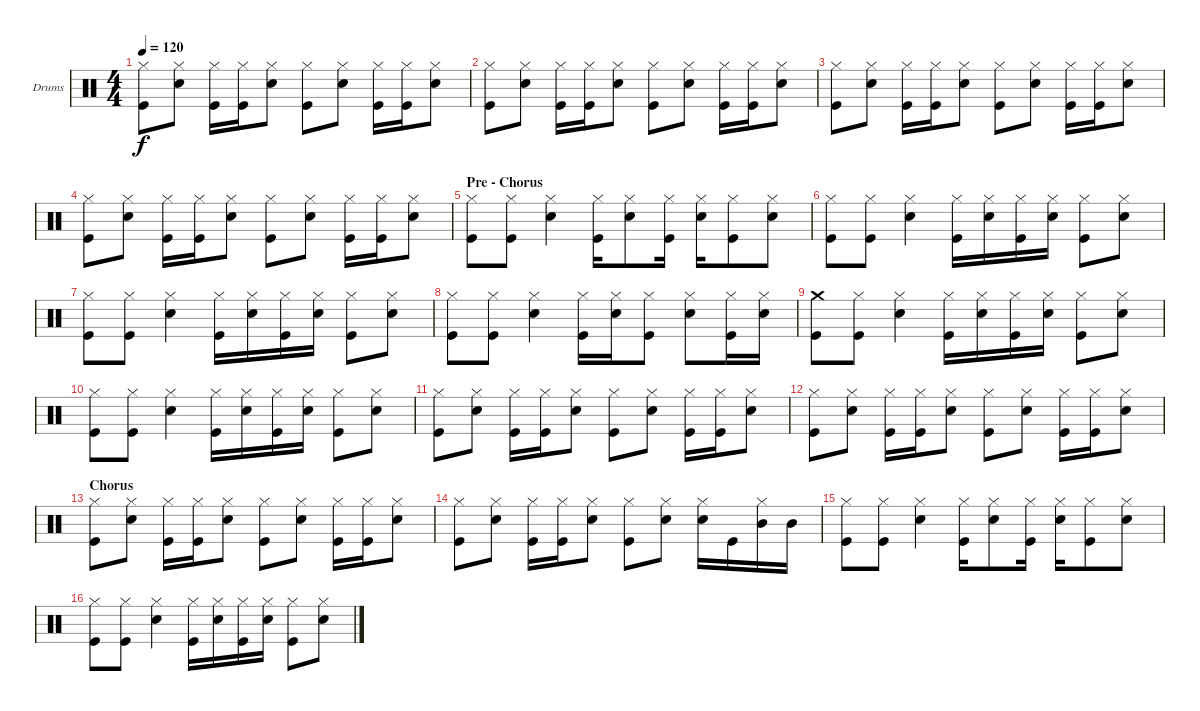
\defaultSystemsLayout 4
\bracketExtendMode groupsimilarinstruments
\firstSystemTrackNameOrientation horizontal
\otherSystemsTrackNameOrientation horizontal
\track ("Drumkit" "Drums") {instrument percussion}
\staff {score}
\articulation defaults
\ts (4 4)
\tempo 120
\clef neutral
\scale
0.333333
\ks c
("Hi-Hat (closed)" "Kick (hit)").8{dy f} ("Hi-Hat (closed)" "Snare (hit) 2").8 ("Hi-Hat (closed)" "Kick (hit)").16 ("Hi-Hat (closed)" "Kick (hit)").16 ("Hi-Hat (closed)" "Snare (hit) 2").8 ("Hi-Hat (closed)" "Kick (hit)").8 ("Hi-Hat (closed)" "Snare (hit) 2").8 ("Hi-Hat (closed)" "Kick (hit)").16 ("Hi-Hat (closed)" "Kick (hit)").16 ("Hi-Hat (closed)" "Snare (hit) 2").8 |
\scale
0.333333 ("Hi-Hat (closed)" "Kick (hit)").8 ("Hi-Hat (closed)" "Snare (hit) 2").8 ("Hi-Hat (closed)" "Kick (hit)").16 ("Hi-Hat (closed)" "Kick (hit)").16 ("Hi-Hat (closed)" "Snare (hit) 2").8 ("Hi-Hat (closed)" "Kick (hit)").8 ("Hi-Hat (closed)" "Snare (hit) 2").8 ("Hi-Hat (closed)" "Kick (hit)").16 ("Hi-Hat (closed)" "Kick (hit)").16 ("Hi-Hat (closed)" "Snare (hit) 2").8 |
\scale
0.333333 ("Hi-Hat (closed)" "Kick (hit)").8 ("Hi-Hat (closed)" "Snare (hit) 2").8 ("Hi-Hat (closed)" "Kick (hit)").16 ("Hi-Hat (closed)" "Kick (hit)").16 ("Hi-Hat (closed)" "Snare (hit) 2").8 ("Hi-Hat (closed)" "Kick (hit)").8 ("Hi-Hat (closed)" "Snare (hit) 2").8 ("Hi-Hat (closed)" "Kick (hit)").16 ("Hi-Hat (closed)" "Kick (hit)").16 ("Hi-Hat (closed)" "Snare (hit) 2").8 |
\scale
0.333333 ("Hi-Hat (closed)" "Kick (hit)").8 ("Hi-Hat (closed)" "Snare (hit) 2").8 ("Hi-Hat (closed)" "Kick (hit)").16 ("Hi-Hat (closed)" "Kick (hit)").16 ("Hi-Hat (closed)" "Snare (hit) 2").8 ("Hi-Hat (closed)" "Kick (hit)").8 ("Hi-Hat (closed)" "Snare (hit) 2").8 ("Hi-Hat (closed)" "Kick (hit)").16 ("Hi-Hat (closed)" "Kick (hit)").16 ("Hi-Hat (closed)" "Snare (hit) 2").8 |
\section ("" "Pre - Chorus")
\scale
0.333333 ("Hi-Hat (closed)" "Kick (hit)").8 ("Hi-Hat (closed)" "Kick (hit)").8 ("Hi-Hat (closed)" "Snare (hit) 2").4 ("Hi-Hat (closed)" "Kick (hit)").16 ("Hi-Hat (closed)" "Snare (hit) 2").8 ("Hi-Hat (closed)" "Kick (hit)").16 ("Hi-Hat (closed)" "Snare (hit) 2").16 ("Hi-Hat (closed)" "Kick (hit)").8 ("Hi-Hat (closed)" "Snare (hit) 2").8 |
\scale
0.333333 ("Hi-Hat (closed)" "Kick (hit)").8 ("Hi-Hat (closed)" "Kick (hit)").8 ("Hi-Hat (closed)" "Snare (hit) 2").4 ("Hi-Hat (closed)" "Kick (hit)").16 ("Hi-Hat (closed)" "Snare (hit) 2").16 ("Hi-Hat (closed)" "Kick (hit)").16 ("Hi-Hat (closed)" "Snare (hit) 2").16 ("Hi-Hat (closed)" "Kick (hit)").8 ("Hi-Hat (closed)" "Snare (hit) 2").8 |
\scale
0.333333 ("Hi-Hat (closed)" "Kick (hit)").8 ("Hi-Hat (closed)" "Kick (hit)").8 ("Hi-Hat (closed)" "Snare (hit) 2").4 ("Hi-Hat (closed)" "Kick (hit)").16 ("Hi-Hat (closed)" "Snare (hit) 2").16 ("Hi-Hat (closed)" "Kick (hit)").16 ("Hi-Hat (closed)" "Snare (hit) 2").16 ("Hi-Hat (closed)" "Kick (hit)").8 ("Hi-Hat (closed)" "Snare (hit) 2").8 |
\scale
0.333333 ("Hi-Hat (closed)" "Kick (hit)").8 ("Hi-Hat (closed)" "Kick (hit)").8 ("Hi-Hat (closed)" "Snare (hit) 2").4 ("Hi-Hat (closed)" "Kick (hit)").16 ("Hi-Hat (closed)" "Snare (hit) 2").16 ("Hi-Hat (closed)" "Kick (hit)").8 ("Hi-Hat (closed)" "Snare (hit) 2").8 ("Hi-Hat (closed)" "Kick (hit)").16 ("Hi-Hat (closed)" "Snare (hit) 2").16 |
\scale
0.333333 ("Crash medium (hit)" "Kick (hit)").8 ("Hi-Hat (closed)" "Kick (hit)").8 ("Hi-Hat (closed)" "Snare (hit) 2").4 ("Hi-Hat (closed)" "Kick (hit)").16 ("Hi-Hat (closed)" "Snare (hit) 2").16 ("Hi-Hat (closed)" "Kick (hit)").16 ("Hi-Hat (closed)" "Snare (hit) 2").16 ("Hi-Hat (closed)" "Kick (hit)").8 ("Hi-Hat (closed)" "Snare (hit) 2").8 |
\scale
0.333333 ("Hi-Hat (closed)" "Kick (hit)").8 ("Hi-Hat (closed)" "Kick (hit)").8 ("Hi-Hat (closed)" "Snare (hit) 2").4 ("Hi-Hat (closed)" "Kick (hit)").16 ("Hi-Hat (closed)" "Snare (hit) 2").16 ("Hi-Hat (closed)" "Kick (hit)").16 ("Hi-Hat (closed)" "Snare (hit) 2").16 ("Hi-Hat (closed)" "Kick (hit)").8 ("Hi-Hat (closed)" "Snare (hit) 2").8 |
("Hi-Hat (closed)" "Kick (hit)").8 ("Hi-Hat (closed)" "Snare (hit) 2").8 ("Hi-Hat (closed)" "Kick (hit)").16 ("Hi-Hat (closed)" "Kick (hit)").16 ("Hi-Hat (closed)" "Snare (hit) 2").8 ("Hi-Hat (closed)" "Kick (hit)").8 ("Hi-Hat (closed)" "Snare (hit) 2").8 ("Hi-Hat (closed)" "Kick (hit)").16 ("Hi-Hat (closed)" "Kick (hit)").16 ("Hi-Hat (closed)" "Snare (hit) 2").8 |
("Hi-Hat (closed)" "Kick (hit)").8 ("Hi-Hat (closed)" "Snare (hit) 2").8 ("Hi-Hat (closed)" "Kick (hit)").16 ("Hi-Hat (closed)" "Kick (hit)").16 ("Hi-Hat (closed)" "Snare (hit) 2").8 ("Hi-Hat (closed)" "Kick (hit)").8 ("Hi-Hat (closed)" "Snare (hit) 2").8 ("Hi-Hat (closed)" "Kick (hit)").16 ("Hi-Hat (closed)" "Kick (hit)").16 ("Hi-Hat (closed)" "Snare (hit) 2").8 |
\section ("" "Chorus")
("Hi-Hat (closed)" "Kick (hit)").8 ("Hi-Hat (closed)" "Snare (hit) 2").8 ("Hi-Hat (closed)" "Kick (hit)").16 ("Hi-Hat (closed)" "Kick (hit)").16 ("Hi-Hat (closed)" "Snare (hit) 2").8 ("Hi-Hat (closed)" "Kick (hit)").8 ("Hi-Hat (closed)" "Snare (hit) 2").8 ("Hi-Hat (closed)" "Kick (hit)").16 ("Hi-Hat (closed)" "Kick (hit)").16 ("Hi-Hat (closed)" "Snare (hit) 2").8 |
("Hi-Hat (closed)" "Kick (hit)").8 ("Hi-Hat (closed)" "Snare (hit) 2").8 ("Hi-Hat (closed)" "Kick (hit)").16 ("Hi-Hat (closed)" "Kick (hit)").16 ("Hi-Hat (closed)" "Snare (hit) 2").8 ("Hi-Hat (closed)" "Kick (hit)").8 ("Hi-Hat (closed)" "Snare (hit) 2").8 ("Hi-Hat (closed)" "Snare (hit) 2").16 "Kick (hit)".16 ("Hi-Hat (closed)" "Mid Tom (hit)").16 "Mid Tom (hit)".16 |
("Hi-Hat (closed)" "Kick (hit)").8 ("Hi-Hat (closed)" "Kick (hit)").8 ("Hi-Hat (closed)" "Snare (hit) 2").4 ("Hi-Hat (closed)" "Kick (hit)").16 ("Hi-Hat (closed)" "Snare (hit) 2").8 ("Hi-Hat (closed)" "Kick (hit)").16 ("Hi-Hat (closed)" "Snare (hit) 2").16 ("Hi-Hat (closed)" "Kick (hit)").8 ("Hi-Hat (closed)" "Snare (hit) 2").8 |
("Hi-Hat (closed)" "Kick (hit)").8 ("Hi-Hat (closed)" "Kick (hit)").8 ("Hi-Hat (closed)" "Snare (hit) 2").4 ("Hi-Hat (closed)" "Kick (hit)").16 ("Hi-Hat (closed)" "Snare (hit) 2").16 ("Hi-Hat (closed)" "Kick (hit)").16 ("Hi-Hat (closed)" "Snare (hit) 2").16 ("Hi-Hat (closed)" "Kick (hit)").8 ("Hi-Hat (closed)" "Snare (hit) 2").8
